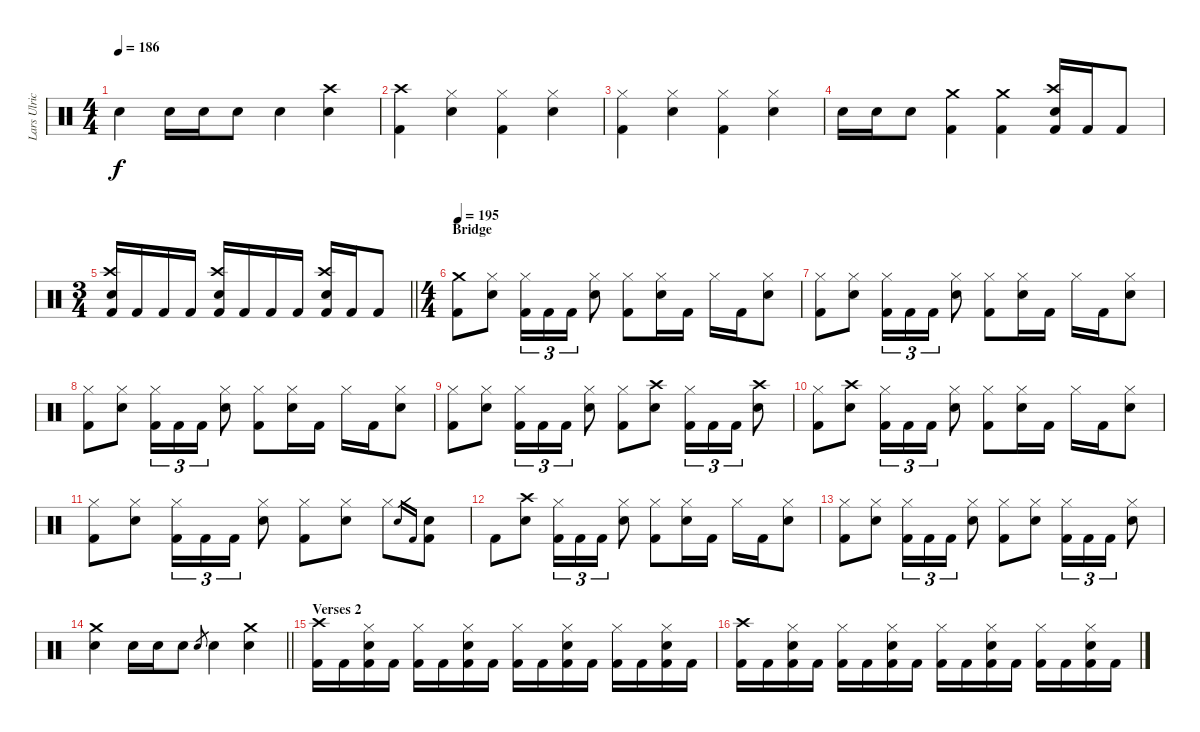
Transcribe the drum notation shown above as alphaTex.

\track ("Lars Ulrich" "Lars Ulric") {instrument percussion}
\staff {score}
\articulation defaults
\ts (4 4)
\tempo 186
\clef neutral
\ks c "Electric Snare (hit)".4{dy f} "Electric Snare (hit)".16 "Electric Snare (hit)".16 "Electric Snare (hit)".8 "Electric Snare (hit)".4
("Crash high (hit)" "Electric Snare (hit)").4 |
("Crash high (hit)" "Kick (hit) 2").4 ("Hi-Hat (closed)" "Electric Snare (hit)").4 ("Hi-Hat (closed)" "Kick (hit) 2").4 ("Hi-Hat (closed)" "Electric Snare (hit)").4 |
("Hi-Hat (closed)" "Kick (hit) 2").4 ("Hi-Hat (closed)" "Electric Snare (hit)").4 ("Hi-Hat (closed)" "Kick (hit) 2").4 ("Hi-Hat (closed)" "Electric Snare (hit)").4 |
"Electric Snare (hit)".16 "Electric Snare (hit)".16 "Electric Snare (hit)".8 ("Crash medium (hit)" "Kick (hit) 2").4 ("Crash medium (hit)" "Kick (hit) 2").4 ("Crash high (hit)" "Electric Snare (hit)" "Kick (hit) 2").16 "Kick (hit) 2".16 "Kick (hit) 2".8 |
\ts (3 4)
\barLineRight lightlight
("Crash high (hit)" "Electric Snare (hit)" "Kick (hit) 2").16 "Kick (hit) 2".16 "Kick (hit) 2".16 "Kick (hit) 2".16 ("Crash high (hit)" "Electric Snare (hit)" "Kick (hit) 2").16 "Kick (hit) 2".16 "Kick (hit) 2".16 "Kick (hit) 2".16 ("Crash high (hit)" "Electric Snare (hit)" "Kick (hit) 2").16 "Kick (hit) 2".16 "Kick (hit) 2".8 |
\ts (4 4)
\section ("" "Bridge")
\tempo 195
("Crash medium (hit)" "Kick (hit) 2").8 ("Hi-Hat (closed)" "Electric Snare (hit)").8 ("Hi-Hat (closed)" "Kick (hit) 2").16{tu (3 2)} "Kick (hit) 2".16{tu (3 2)} "Kick (hit) 2".16{tu (3 2)} ("Hi-Hat (closed)" "Electric Snare (hit)").8 ("Hi-Hat (closed)" "Kick (hit) 2").8 ("Hi-Hat (closed)" "Electric Snare (hit)").16 "Kick (hit) 2".16 "Hi-Hat (closed)".16 "Kick (hit) 2".16 ("Hi-Hat (closed)" "Electric Snare (hit)").8 |
("Hi-Hat (closed)" "Kick (hit) 2").8 ("Hi-Hat (closed)" "Electric Snare (hit)").8 ("Hi-Hat (closed)" "Kick (hit) 2").16{tu (3 2)} "Kick (hit) 2".16{tu (3 2)} "Kick (hit) 2".16{tu (3 2)} ("Hi-Hat (closed)" "Electric Snare (hit)").8 ("Hi-Hat (closed)" "Kick (hit) 2").8 ("Hi-Hat (closed)" "Electric Snare (hit)").16 "Kick (hit) 2".16 "Hi-Hat (closed)".16 "Kick (hit) 2".16 ("Hi-Hat (closed)" "Electric Snare (hit)").8 |
("Hi-Hat (closed)" "Kick (hit) 2").8 ("Hi-Hat (closed)" "Electric Snare (hit)").8 ("Hi-Hat (closed)" "Kick (hit) 2").16{tu (3 2)} "Kick (hit) 2".16{tu (3 2)} "Kick (hit) 2".16{tu (3 2)} ("Hi-Hat (closed)" "Electric Snare (hit)").8 ("Hi-Hat (closed)" "Kick (hit) 2").8 ("Hi-Hat (closed)" "Electric Snare (hit)").16 "Kick (hit) 2".16 "Hi-Hat (closed)".16 "Kick (hit) 2".16 ("Hi-Hat (closed)" "Electric Snare (hit)").8 |
("Hi-Hat (closed)" "Kick (hit) 2").8 ("Hi-Hat (closed)" "Electric Snare (hit)").8 ("Hi-Hat (closed)" "Kick (hit) 2").16{tu (3 2)} "Kick (hit) 2".16{tu (3 2)} "Kick (hit) 2".16{tu (3 2)} ("Hi-Hat (closed)" "Electric Snare (hit)").8 ("Hi-Hat (closed)" "Kick (hit) 2").8 ("Crash high (hit)" "Electric Snare (hit)").8 ("Hi-Hat (closed)" "Kick (hit) 2").16{tu (3 2)} "Kick (hit) 2".16{tu (3 2)} "Kick (hit) 2".16{tu (3 2)} ("Crash high (hit)" "Electric Snare (hit)").8 |
("Hi-Hat (closed)" "Kick (hit) 2").8 ("Crash high (hit)" "Electric Snare (hit)").8 ("Hi-Hat (closed)" "Kick (hit) 2").16{tu (3 2)} "Kick (hit) 2".16{tu (3 2)} "Kick (hit) 2".16{tu (3 2)} ("Hi-Hat (closed)" "Electric Snare (hit)").8 ("Hi-Hat (closed)" "Kick (hit) 2").8 ("Hi-Hat (closed)" "Electric Snare (hit)").16 "Kick (hit) 2".16 "Hi-Hat (closed)".16 "Kick (hit) 2".16 ("Hi-Hat (closed)" "Electric Snare (hit)").8 |
("Hi-Hat (closed)" "Kick (hit) 2").8 ("Hi-Hat (closed)" "Electric Snare (hit)").8 ("Hi-Hat (closed)" "Kick (hit) 2").16{tu (3 2)} "Kick (hit) 2".16{tu (3 2)} "Kick (hit) 2".16{tu (3 2)} ("Hi-Hat (closed)" "Electric Snare (hit)").8 ("Hi-Hat (closed)" "Kick (hit) 2").8 ("Hi-Hat (closed)" "Electric Snare (hit)").8 "Hi-Hat (closed)".8 "Electric Snare (hit)".16{gr} "Kick (hit) 2".16{gr} ("Electric Snare (hit)" "Kick (hit) 2").8 |
"Kick (hit) 2".8 ("Crash high (hit)" "Electric Snare (hit)").8 ("Hi-Hat (closed)" "Kick (hit) 2").16{tu (3 2)} "Kick (hit) 2".16{tu (3 2)} "Kick (hit) 2".16{tu (3 2)} ("Hi-Hat (closed)" "Electric Snare (hit)").8 ("Hi-Hat (closed)" "Kick (hit) 2").8 ("Hi-Hat (closed)" "Electric Snare (hit)").16 "Kick (hit) 2".16 "Hi-Hat (closed)".16 "Kick (hit) 2".16 ("Hi-Hat (closed)" "Electric Snare (hit)").8 |
("Hi-Hat (closed)" "Kick (hit) 2").8 ("Hi-Hat (closed)" "Electric Snare (hit)").8 ("Hi-Hat (closed)" "Kick (hit) 2").16{tu (3 2)} "Kick (hit) 2".16{tu (3 2)} "Kick (hit) 2".16{tu (3 2)} ("Hi-Hat (closed)" "Electric Snare (hit)").8 ("Hi-Hat (closed)" "Kick (hit) 2").8 ("Hi-Hat (closed)" "Electric Snare (hit)").8 ("Hi-Hat (closed)" "Kick (hit) 2").16{tu (3 2)} "Kick (hit) 2".16{tu (3 2)} "Kick (hit) 2".16{tu (3 2)} ("Hi-Hat (closed)" "Electric Snare (hit)").8 |
\barLineRight lightlight
("Crash medium (hit)" "Electric Snare (hit)").4 "Electric Snare (hit)".16 "Electric Snare (hit)".16 "Electric Snare (hit)".8 "Electric Snare (hit)".8{gr} "Electric Snare (hit)".4 ("Crash medium (hit)" "Electric Snare (hit)").4 |
\section ("" "Verses 2")
("Crash high (hit)" "Kick (hit) 2").16 "Kick (hit) 2".16 ("Hi-Hat (closed)" "Electric Snare (hit)" "Kick (hit) 2").16 "Kick (hit) 2".16 ("Hi-Hat (closed)" "Kick (hit) 2").16 "Kick (hit) 2".16 ("Hi-Hat (closed)" "Electric Snare (hit)" "Kick (hit) 2").16 "Kick (hit) 2".16 ("Hi-Hat (closed)" "Kick (hit) 2").16 "Kick (hit) 2".16 ("Hi-Hat (closed)" "Electric Snare (hit)" "Kick (hit) 2").16 "Kick (hit) 2".16 ("Hi-Hat (closed)" "Kick (hit) 2").16 "Kick (hit) 2".16 ("Hi-Hat (closed)" "Electric Snare (hit)" "Kick (hit) 2").16 "Kick (hit) 2".16 |
("Crash high (hit)" "Kick (hit) 2").16 "Kick (hit) 2".16 ("Hi-Hat (closed)" "Electric Snare (hit)" "Kick (hit) 2").16 "Kick (hit) 2".16 ("Hi-Hat (closed)" "Kick (hit) 2").16 "Kick (hit) 2".16 ("Hi-Hat (closed)" "Electric Snare (hit)" "Kick (hit) 2").16 "Kick (hit) 2".16 ("Hi-Hat (closed)" "Kick (hit) 2").16 "Kick (hit) 2".16 ("Hi-Hat (closed)" "Electric Snare (hit)" "Kick (hit) 2").16 "Kick (hit) 2".16 ("Hi-Hat (closed)" "Kick (hit) 2").16 "Kick (hit) 2".16 ("Hi-Hat (closed)" "Electric Snare (hit)" "Kick (hit) 2").16 "Kick (hit) 2".16
